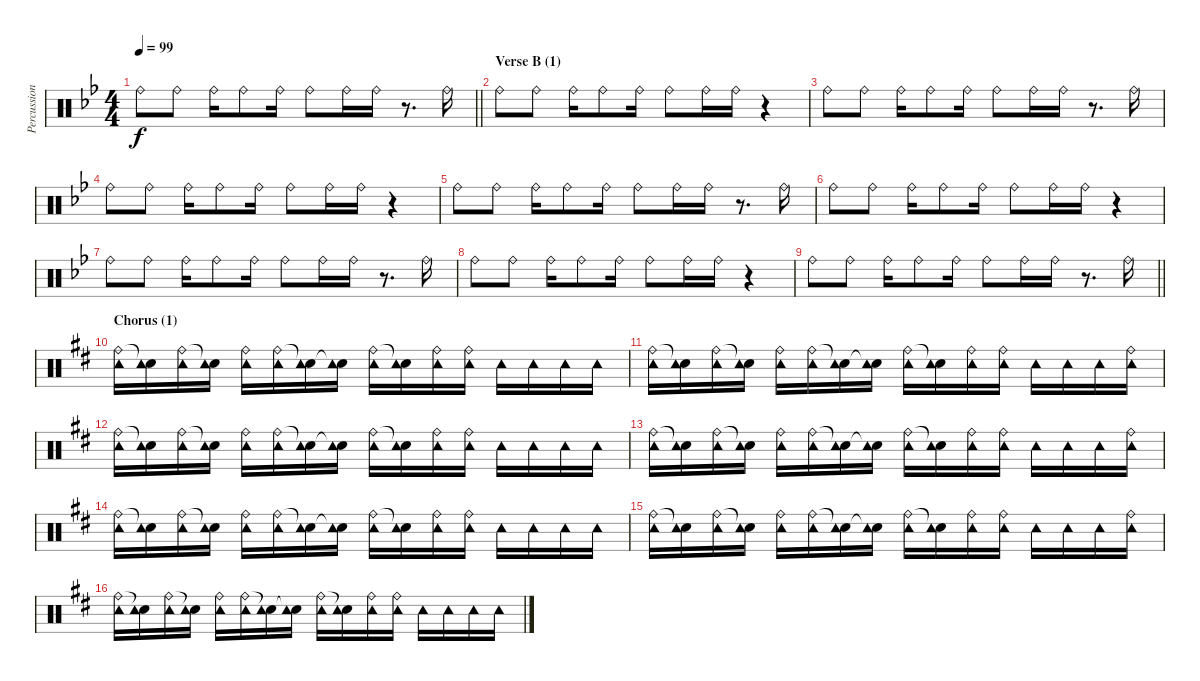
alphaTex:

\track ("Percussion" "Percussion") {instrument percussion}
\staff {score}
\articulation defaults
\ts (4 4)
\tempo 99
\clef neutral
\barLineRight lightlight
\ks gminor "Ride (bell)".8{dy f} "Ride (bell)".8 "Ride (bell)".16 "Ride (bell)".8 "Ride (bell)".16 "Ride (bell)".8 "Ride (bell)".16 "Ride (bell)".16
r.8{d} "Ride (bell)".16 |
\section ("" "Verse B (1)")
"Ride (bell)".8 "Ride (bell)".8 "Ride (bell)".16 "Ride (bell)".8 "Ride (bell)".16 "Ride (bell)".8 "Ride (bell)".16 "Ride (bell)".16 r.4 |
"Ride (bell)".8 "Ride (bell)".8 "Ride (bell)".16 "Ride (bell)".8 "Ride (bell)".16 "Ride (bell)".8 "Ride (bell)".16 "Ride (bell)".16 r.8{d} "Ride (bell)".16 |
"Ride (bell)".8 "Ride (bell)".8 "Ride (bell)".16 "Ride (bell)".8 "Ride (bell)".16 "Ride (bell)".8 "Ride (bell)".16 "Ride (bell)".16 r.4 |
"Ride (bell)".8 "Ride (bell)".8 "Ride (bell)".16 "Ride (bell)".8 "Ride (bell)".16 "Ride (bell)".8 "Ride (bell)".16 "Ride (bell)".16 r.8{d} "Ride (bell)".16 |
"Ride (bell)".8 "Ride (bell)".8 "Ride (bell)".16 "Ride (bell)".8 "Ride (bell)".16 "Ride (bell)".8 "Ride (bell)".16 "Ride (bell)".16 r.4 |
"Ride (bell)".8 "Ride (bell)".8 "Ride (bell)".16 "Ride (bell)".8 "Ride (bell)".16 "Ride (bell)".8 "Ride (bell)".16 "Ride (bell)".16 r.8{d} "Ride (bell)".16 |
"Ride (bell)".8 "Ride (bell)".8 "Ride (bell)".16 "Ride (bell)".8 "Ride (bell)".16 "Ride (bell)".8 "Ride (bell)".16 "Ride (bell)".16 r.4 |
\barLineRight lightlight "Ride (bell)".8 "Ride (bell)".8 "Ride (bell)".16 "Ride (bell)".8 "Ride (bell)".16 "Ride (bell)".8 "Ride (bell)".16 "Ride (bell)".16
r.8{d} "Ride (bell)".16 |
\section ("" "Chorus (1)")
\ks d
("Ride (bell)" "Tambourine (hit)").16 ("Snare (hit)"{t} "Tambourine (hit)").16 ("Ride (bell)" "Tambourine (hit)").16 ("Snare (hit)"{t} "Tambourine (hit)").16 ("Ride (bell)" "Tambourine (hit)").16 ("Ride (bell)" "Tambourine (hit)").16 ("Snare (hit)"{t} "Tambourine (hit)").16 ("Snare (hit)"{t} "Tambourine (hit)").16 ("Ride (bell)" "Tambourine (hit)").16 ("Snare (hit)"{t} "Tambourine (hit)").16 ("Ride (bell)" "Tambourine (hit)").16 ("Ride (bell)" "Tambourine (hit)").16 "Tambourine (hit)".16 "Tambourine (hit)".16 "Tambourine (hit)".16 "Tambourine (hit)".16 |
("Ride (bell)" "Tambourine (hit)").16 ("Snare (hit)"{t} "Tambourine (hit)").16 ("Ride (bell)" "Tambourine (hit)").16 ("Snare (hit)"{t} "Tambourine (hit)").16 ("Ride (bell)" "Tambourine (hit)").16 ("Ride (bell)" "Tambourine (hit)").16 ("Snare (hit)"{t} "Tambourine (hit)").16 ("Snare (hit)"{t} "Tambourine (hit)").16 ("Ride (bell)" "Tambourine (hit)").16 ("Snare (hit)"{t} "Tambourine (hit)").16 ("Ride (bell)" "Tambourine (hit)").16 ("Ride (bell)" "Tambourine (hit)").16 "Tambourine (hit)".16 "Tambourine (hit)".16 "Tambourine (hit)".16 ("Ride (bell)" "Tambourine (hit)").16 |
("Ride (bell)" "Tambourine (hit)").16 ("Snare (hit)"{t} "Tambourine (hit)").16 ("Ride (bell)" "Tambourine (hit)").16 ("Snare (hit)"{t} "Tambourine (hit)").16 ("Ride (bell)" "Tambourine (hit)").16 ("Ride (bell)" "Tambourine (hit)").16 ("Snare (hit)"{t} "Tambourine (hit)").16 ("Snare (hit)"{t} "Tambourine (hit)").16 ("Ride (bell)" "Tambourine (hit)").16 ("Snare (hit)"{t} "Tambourine (hit)").16 ("Ride (bell)" "Tambourine (hit)").16 ("Ride (bell)" "Tambourine (hit)").16 "Tambourine (hit)".16 "Tambourine (hit)".16 "Tambourine (hit)".16 "Tambourine (hit)".16 |
("Ride (bell)" "Tambourine (hit)").16 ("Snare (hit)"{t} "Tambourine (hit)").16 ("Ride (bell)" "Tambourine (hit)").16 ("Snare (hit)"{t} "Tambourine (hit)").16 ("Ride (bell)" "Tambourine (hit)").16 ("Ride (bell)" "Tambourine (hit)").16 ("Snare (hit)"{t} "Tambourine (hit)").16 ("Snare (hit)"{t} "Tambourine (hit)").16 ("Ride (bell)" "Tambourine (hit)").16 ("Snare (hit)"{t} "Tambourine (hit)").16 ("Ride (bell)" "Tambourine (hit)").16 ("Ride (bell)" "Tambourine (hit)").16 "Tambourine (hit)".16 "Tambourine (hit)".16 "Tambourine (hit)".16 ("Ride (bell)" "Tambourine (hit)").16 |
("Ride (bell)" "Tambourine (hit)").16 ("Snare (hit)"{t} "Tambourine (hit)").16 ("Ride (bell)" "Tambourine (hit)").16 ("Snare (hit)"{t} "Tambourine (hit)").16 ("Ride (bell)" "Tambourine (hit)").16 ("Ride (bell)" "Tambourine (hit)").16 ("Snare (hit)"{t} "Tambourine (hit)").16 ("Snare (hit)"{t} "Tambourine (hit)").16 ("Ride (bell)" "Tambourine (hit)").16 ("Snare (hit)"{t} "Tambourine (hit)").16 ("Ride (bell)" "Tambourine (hit)").16 ("Ride (bell)" "Tambourine (hit)").16 "Tambourine (hit)".16 "Tambourine (hit)".16 "Tambourine (hit)".16 "Tambourine (hit)".16 |
("Ride (bell)" "Tambourine (hit)").16 ("Snare (hit)"{t} "Tambourine (hit)").16 ("Ride (bell)" "Tambourine (hit)").16 ("Snare (hit)"{t} "Tambourine (hit)").16 ("Ride (bell)" "Tambourine (hit)").16 ("Ride (bell)" "Tambourine (hit)").16 ("Snare (hit)"{t} "Tambourine (hit)").16 ("Snare (hit)"{t} "Tambourine (hit)").16 ("Ride (bell)" "Tambourine (hit)").16 ("Snare (hit)"{t} "Tambourine (hit)").16 ("Ride (bell)" "Tambourine (hit)").16 ("Ride (bell)" "Tambourine (hit)").16 "Tambourine (hit)".16 "Tambourine (hit)".16 "Tambourine (hit)".16 ("Ride (bell)" "Tambourine (hit)").16 |
("Ride (bell)" "Tambourine (hit)").16 ("Snare (hit)"{t} "Tambourine (hit)").16 ("Ride (bell)" "Tambourine (hit)").16 ("Snare (hit)"{t} "Tambourine (hit)").16 ("Ride (bell)" "Tambourine (hit)").16 ("Ride (bell)" "Tambourine (hit)").16 ("Snare (hit)"{t} "Tambourine (hit)").16 ("Snare (hit)"{t} "Tambourine (hit)").16 ("Ride (bell)" "Tambourine (hit)").16 ("Snare (hit)"{t} "Tambourine (hit)").16 ("Ride (bell)" "Tambourine (hit)").16 ("Ride (bell)" "Tambourine (hit)").16 "Tambourine (hit)".16 "Tambourine (hit)".16 "Tambourine (hit)".16 "Tambourine (hit)".16
